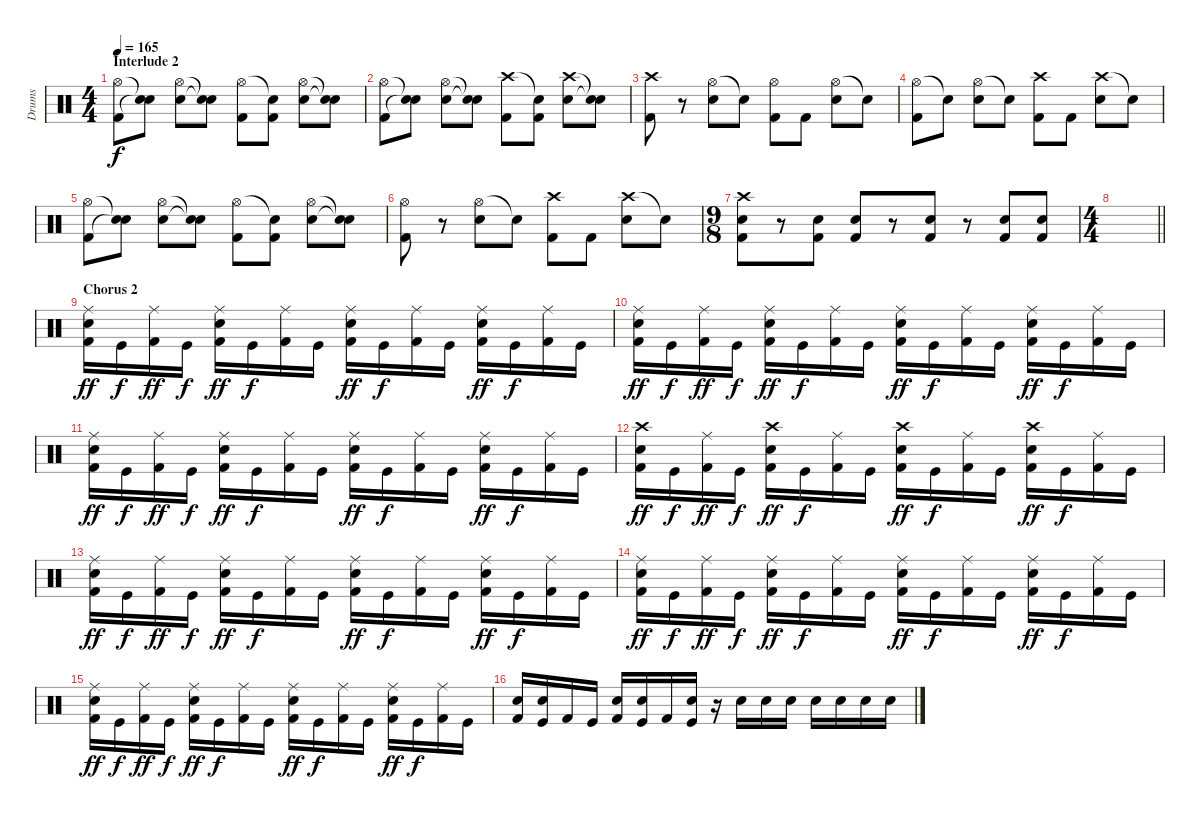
\track ("Drums" "Drums") {instrument percussion}
\staff {score}
\articulation defaults
\ts (4 4)
\section ("" "Interlude 2")
\tempo 165
\clef neutral
\ks c
("Hi-Hat (open)" "Kick (hit) 2").8{dy f} ("Snare (hit)"{t} "Snare (hit)"{t}).8 ("Hi-Hat (open)" "Snare (hit) 2").8 ("Snare (hit)"{t} "Snare (hit)"{t}).8 ("Hi-Hat (open)" "Kick (hit) 2").8 ("Snare (hit)"{t} "Kick (hit) 2").8 ("Hi-Hat (open)" "Snare (hit) 2").8 ("Snare (hit)"{t} "Snare (hit)"{t}).8 |
("Hi-Hat (open)" "Kick (hit) 2").8 ("Snare (hit)"{t} "Snare (hit)"{t}).8 ("Hi-Hat (open)" "Snare (hit) 2").8 ("Snare (hit)"{t} "Snare (hit)"{t}).8 ("Crash high (hit)" "Kick (hit) 2").8 ("Snare (hit)"{t} "Kick (hit) 2").8 ("Crash high (hit)" "Snare (hit) 2").8 ("Snare (hit)"{t} "Snare (hit)"{t}).8 |
("Crash high (hit)" "Kick (hit) 2").8 r.8 ("Hi-Hat (open)" "Snare (hit) 2").8 "Snare (hit)"{t}.8 ("Hi-Hat (open)" "Kick (hit) 2").8 "Kick (hit) 2".8 ("Hi-Hat (open)" "Snare (hit) 2").8 "Snare (hit)"{t}.8 |
("Hi-Hat (open)" "Kick (hit) 2").8 "Snare (hit)"{t}.8 ("Hi-Hat (open)" "Snare (hit) 2").8 "Snare (hit)"{t}.8 ("Crash high (hit)" "Kick (hit) 2").8 "Kick (hit) 2".8 ("Crash high (hit)" "Snare (hit) 2").8 "Snare (hit)"{t}.8 |
("Hi-Hat (open)" "Kick (hit) 2").8 ("Snare (hit)"{t} "Snare (hit)"{t}).8 ("Hi-Hat (open)" "Snare (hit) 2").8 ("Snare (hit)"{t} "Snare (hit)"{t}).8 ("Hi-Hat (open)" "Kick (hit) 2").8 ("Snare (hit)"{t} "Kick (hit) 2").8 ("Hi-Hat (open)" "Snare (hit) 2").8 ("Snare (hit)"{t} "Snare (hit)"{t}).8 |
("Hi-Hat (open)" "Kick (hit) 2").8 r.8 ("Hi-Hat (open)" "Snare (hit) 2").8 "Snare (hit)"{t}.8 ("Crash high (hit)" "Kick (hit) 2").8 "Kick (hit) 2".8 ("Crash high (hit)" "Snare (hit) 2").8 "Snare (hit)"{t}.8 |
\ts (9 8)
("Crash high (hit)" "Snare (hit) 2" "Kick (hit) 2").8 r.8 ("Snare (hit) 2" "Kick (hit) 2").8 ("Snare (hit) 2" "Kick (hit) 2").8 r.8 ("Snare (hit) 2" "Kick (hit) 2").8 r.8 ("Snare (hit) 2" "Kick (hit) 2").8 ("Snare (hit) 2" "Kick (hit) 2").8 |
\ts (4 4)
\barLineRight lightlight
|
\section ("" "Chorus 2")
("Ride (middle)" "Snare (hit) 2" "Kick (hit) 2").16{dy ff} "Kick (hit)".16{dy f} ("Ride (middle)" "Kick (hit) 2").16{dy ff} "Kick (hit)".16{dy f} ("Ride (middle)" "Snare (hit) 2" "Kick (hit) 2").16{dy ff} "Kick (hit)".16{dy f} ("Ride (middle)" "Kick (hit) 2").16 "Kick (hit)".16 ("Ride (middle)" "Snare (hit) 2" "Kick (hit) 2").16{dy ff} "Kick (hit)".16{dy f} ("Ride (middle)" "Kick (hit) 2").16 "Kick (hit)".16 ("Ride (middle)" "Snare (hit) 2" "Kick (hit) 2").16{dy ff} "Kick (hit)".16{dy f} ("Ride (middle)" "Kick (hit) 2").16 "Kick (hit)".16 |
("Ride (middle)" "Snare (hit) 2" "Kick (hit) 2").16{dy ff} "Kick (hit)".16{dy f} ("Ride (middle)" "Kick (hit) 2").16{dy ff} "Kick (hit)".16{dy f} ("Ride (middle)" "Snare (hit) 2" "Kick (hit) 2").16{dy ff} "Kick (hit)".16{dy f} ("Ride (middle)" "Kick (hit) 2").16 "Kick (hit)".16 ("Ride (middle)" "Snare (hit) 2" "Kick (hit) 2").16{dy ff} "Kick (hit)".16{dy f} ("Ride (middle)" "Kick (hit) 2").16 "Kick (hit)".16 ("Ride (middle)" "Snare (hit) 2" "Kick (hit) 2").16{dy ff} "Kick (hit)".16{dy f} ("Ride (middle)" "Kick (hit) 2").16 "Kick (hit)".16 |
("Ride (middle)" "Snare (hit) 2" "Kick (hit) 2").16{dy ff} "Kick (hit)".16{dy f} ("Ride (middle)" "Kick (hit) 2").16{dy ff} "Kick (hit)".16{dy f} ("Ride (middle)" "Snare (hit) 2" "Kick (hit) 2").16{dy ff} "Kick (hit)".16{dy f} ("Ride (middle)" "Kick (hit) 2").16 "Kick (hit)".16 ("Ride (middle)" "Snare (hit) 2" "Kick (hit) 2").16{dy ff} "Kick (hit)".16{dy f} ("Ride (middle)" "Kick (hit) 2").16 "Kick (hit)".16 ("Ride (middle)" "Snare (hit) 2" "Kick (hit) 2").16{dy ff} "Kick (hit)".16{dy f} ("Ride (middle)" "Kick (hit) 2").16 "Kick (hit)".16 |
("Crash high (hit)" "Snare (hit) 2" "Kick (hit) 2").16{dy ff} "Kick (hit)".16{dy f} ("Ride (middle)" "Kick (hit) 2").16{dy ff} "Kick (hit)".16{dy f} ("Crash high (hit)" "Snare (hit) 2" "Kick (hit) 2").16{dy ff} "Kick (hit)".16{dy f} ("Ride (middle)" "Kick (hit) 2").16 "Kick (hit)".16 ("Crash high (hit)" "Snare (hit) 2" "Kick (hit) 2").16{dy ff} "Kick (hit)".16{dy f} ("Ride (middle)" "Kick (hit) 2").16 "Kick (hit)".16 ("Crash high (hit)" "Snare (hit) 2" "Kick (hit) 2").16{dy ff} "Kick (hit)".16{dy f} ("Ride (middle)" "Kick (hit) 2").16 "Kick (hit)".16 |
("Ride (middle)" "Snare (hit) 2" "Kick (hit) 2").16{dy ff} "Kick (hit)".16{dy f} ("Ride (middle)" "Kick (hit) 2").16{dy ff} "Kick (hit)".16{dy f} ("Ride (middle)" "Snare (hit) 2" "Kick (hit) 2").16{dy ff} "Kick (hit)".16{dy f} ("Ride (middle)" "Kick (hit) 2").16 "Kick (hit)".16 ("Ride (middle)" "Snare (hit) 2" "Kick (hit) 2").16{dy ff} "Kick (hit)".16{dy f} ("Ride (middle)" "Kick (hit) 2").16 "Kick (hit)".16 ("Ride (middle)" "Snare (hit) 2" "Kick (hit) 2").16{dy ff} "Kick (hit)".16{dy f} ("Ride (middle)" "Kick (hit) 2").16 "Kick (hit)".16 |
("Ride (middle)" "Snare (hit) 2" "Kick (hit) 2").16{dy ff} "Kick (hit)".16{dy f} ("Ride (middle)" "Kick (hit) 2").16{dy ff} "Kick (hit)".16{dy f} ("Ride (middle)" "Snare (hit) 2" "Kick (hit) 2").16{dy ff} "Kick (hit)".16{dy f} ("Ride (middle)" "Kick (hit) 2").16 "Kick (hit)".16 ("Ride (middle)" "Snare (hit) 2" "Kick (hit) 2").16{dy ff} "Kick (hit)".16{dy f} ("Ride (middle)" "Kick (hit) 2").16 "Kick (hit)".16 ("Ride (middle)" "Snare (hit) 2" "Kick (hit) 2").16{dy ff} "Kick (hit)".16{dy f} ("Ride (middle)" "Kick (hit) 2").16 "Kick (hit)".16 |
("Ride (middle)" "Snare (hit) 2" "Kick (hit) 2").16{dy ff} "Kick (hit)".16{dy f} ("Ride (middle)" "Kick (hit) 2").16{dy ff} "Kick (hit)".16{dy f} ("Ride (middle)" "Snare (hit) 2" "Kick (hit) 2").16{dy ff} "Kick (hit)".16{dy f} ("Ride (middle)" "Kick (hit) 2").16 "Kick (hit)".16 ("Ride (middle)" "Snare (hit) 2" "Kick (hit) 2").16{dy ff} "Kick (hit)".16{dy f} ("Ride (middle)" "Kick (hit) 2").16 "Kick (hit)".16 ("Ride (middle)" "Snare (hit) 2" "Kick (hit) 2").16{dy ff} "Kick (hit)".16{dy f} ("Ride (middle)" "Kick (hit) 2").16 "Kick (hit)".16 |
("Snare (hit) 2" "Kick (hit) 2").16 ("Snare (hit) 2" "Kick (hit)").16 "Kick (hit) 2".16 "Kick (hit)".16 ("Snare (hit) 2" "Kick (hit) 2").16 ("Snare (hit) 2" "Kick (hit)").16 "Kick (hit) 2".16 ("Snare (hit) 2" "Kick (hit)").16 r.16 "Snare (hit) 2".16 "Snare (hit) 2".16 "Snare (hit) 2".16 "Snare (hit) 2".16 "Snare (hit) 2".16 "Snare (hit) 2".16 "Snare (hit) 2".16
